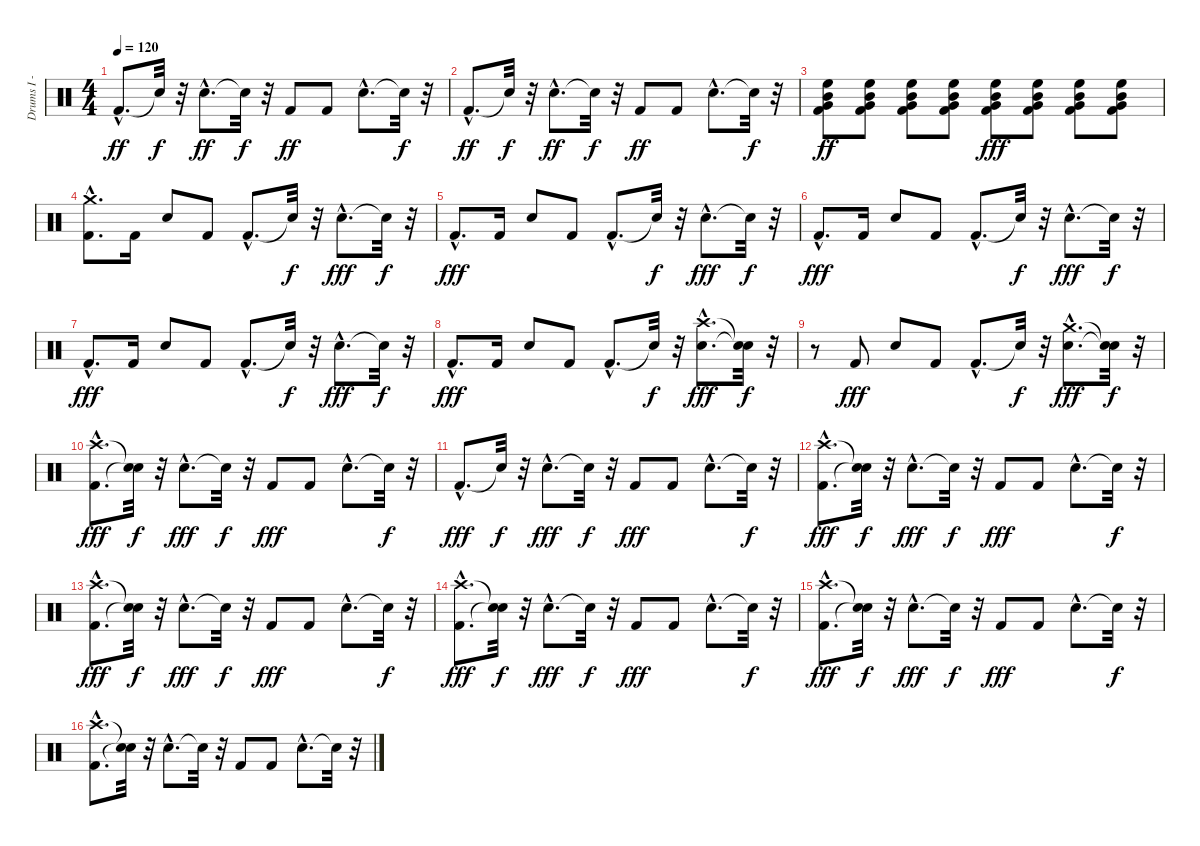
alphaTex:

\track ("Drums I - Bobby Schayer" "Drums I - ") {instrument percussion}
\staff {score}
\articulation defaults
\ts (4 4)
\tempo 120
\clef neutral
\ks c "Kick (hit) 2"{hac}.8{d dy ff} "Snare (hit)"{t}.32{dy f}
r.32 "Snare (hit) 2"{hac}.8{d dy ff} "Snare (hit)"{t}.32{dy f} r.32 "Kick (hit) 2".8{dy ff} "Kick (hit) 2".8 "Snare (hit) 2"{hac}.8{d} "Snare (hit)"{t}.32{dy f} r.32 |
"Kick (hit) 2"{hac}.8{d dy ff} "Snare (hit)"{t}.32{dy f} r.32 "Snare (hit) 2"{hac}.8{d dy ff} "Snare (hit)"{t}.32{dy f} r.32 "Kick (hit) 2".8{dy ff} "Kick (hit) 2".8 "Snare (hit) 2"{hac}.8{d} "Snare (hit)"{t}.32{dy f} r.32 |
("Kick (hit) 2" "Very Low Tom (hit)" "Mid Tom (hit)" "High Floor Tom (hit)").8{dy ff} ("Kick (hit) 2" "Very Low Tom (hit)" "Mid Tom (hit)" "High Floor Tom (hit)").8 ("Kick (hit) 2" "Very Low Tom (hit)" "Mid Tom (hit)" "High Floor Tom (hit)").8 ("Kick (hit) 2" "Very Low Tom (hit)" "Mid Tom (hit)" "High Floor Tom (hit)").8 ("Kick (hit) 2" "Very Low Tom (hit)" "Mid Tom (hit)" "High Floor Tom (hit)").8{dy fff} ("Kick (hit) 2" "Very Low Tom (hit)" "Mid Tom (hit)" "High Floor Tom (hit)").8 ("Kick (hit) 2" "Very Low Tom (hit)" "Mid Tom (hit)" "High Floor Tom (hit)").8 ("Kick (hit) 2" "Very Low Tom (hit)" "Mid Tom (hit)" "High Floor Tom (hit)").8 |
("Kick (hit) 2"{hac} "Crash medium (hit)"{hac}).8{d} "Kick (hit) 2".16 "Snare (hit) 2".8 "Kick (hit) 2".8 "Kick (hit) 2"{hac}.8{d} "Snare (hit)"{t}.32{dy f} r.32 "Snare (hit) 2"{hac}.8{d dy fff} "Snare (hit)"{t}.32{dy f} r.32 |
"Kick (hit) 2"{hac}.8{d dy fff} "Kick (hit) 2".16 "Snare (hit) 2".8 "Kick (hit) 2".8 "Kick (hit) 2"{hac}.8{d} "Snare (hit)"{t}.32{dy f} r.32 "Snare (hit) 2"{hac}.8{d dy fff} "Snare (hit)"{t}.32{dy f} r.32 |
"Kick (hit) 2"{hac}.8{d dy fff} "Kick (hit) 2".16 "Snare (hit) 2".8 "Kick (hit) 2".8 "Kick (hit) 2"{hac}.8{d} "Snare (hit)"{t}.32{dy f} r.32 "Snare (hit) 2"{hac}.8{d dy fff} "Snare (hit)"{t}.32{dy f} r.32 |
"Kick (hit) 2"{hac}.8{d dy fff} "Kick (hit) 2".16 "Snare (hit) 2".8 "Kick (hit) 2".8 "Kick (hit) 2"{hac}.8{d} "Snare (hit)"{t}.32{dy f} r.32 "Snare (hit) 2"{hac}.8{d dy fff} "Snare (hit)"{t}.32{dy f} r.32 |
"Kick (hit) 2"{hac}.8{d dy fff} "Kick (hit) 2".16 "Snare (hit) 2".8 "Kick (hit) 2".8 "Kick (hit) 2"{hac}.8{d} "Snare (hit)"{t}.32{dy f} r.32 ("Snare (hit) 2"{hac} "Crash high (hit)"{hac}).8{d dy fff} ("Snare (hit)"{t} "Snare (hit)"{t}).32{dy f} r.32 |
r.8 "Kick (hit) 2".8{dy fff} "Snare (hit) 2".8 "Kick (hit) 2".8 "Kick (hit) 2"{hac}.8{d} "Snare (hit)"{t}.32{dy f} r.32 ("Snare (hit) 2"{hac} "Crash medium (hit)"{hac}).8{d dy fff} ("Snare (hit)"{t} "Snare (hit)"{t}).32{dy f} r.32 |
("Kick (hit) 2"{hac} "Crash high (hit)"{hac}).8{d dy fff} ("Snare (hit)"{t} "Snare (hit)"{t}).32{dy f} r.32 "Snare (hit) 2"{hac}.8{d dy fff} "Snare (hit)"{t}.32{dy f} r.32 "Kick (hit) 2".8{dy fff} "Kick (hit) 2".8 "Snare (hit) 2"{hac}.8{d} "Snare (hit)"{t}.32{dy f} r.32 |
"Kick (hit) 2"{hac}.8{d dy fff} "Snare (hit)"{t}.32{dy f} r.32 "Snare (hit) 2"{hac}.8{d dy fff} "Snare (hit)"{t}.32{dy f} r.32 "Kick (hit) 2".8{dy fff} "Kick (hit) 2".8 "Snare (hit) 2"{hac}.8{d} "Snare (hit)"{t}.32{dy f} r.32 |
("Kick (hit) 2"{hac} "Crash high (hit)"{hac}).8{d dy fff} ("Snare (hit)"{t} "Snare (hit)"{t}).32{dy f} r.32 "Snare (hit) 2"{hac}.8{d dy fff} "Snare (hit)"{t}.32{dy f} r.32 "Kick (hit) 2".8{dy fff} "Kick (hit) 2".8 "Snare (hit) 2"{hac}.8{d} "Snare (hit)"{t}.32{dy f} r.32 |
("Kick (hit) 2"{hac} "Crash high (hit)"{hac}).8{d dy fff} ("Snare (hit)"{t} "Snare (hit)"{t}).32{dy f} r.32 "Snare (hit) 2"{hac}.8{d dy fff} "Snare (hit)"{t}.32{dy f} r.32 "Kick (hit) 2".8{dy fff} "Kick (hit) 2".8 "Snare (hit) 2"{hac}.8{d} "Snare (hit)"{t}.32{dy f} r.32 |
("Kick (hit) 2"{hac} "Crash high (hit)"{hac}).8{d dy fff} ("Snare (hit)"{t} "Snare (hit)"{t}).32{dy f} r.32 "Snare (hit) 2"{hac}.8{d dy fff} "Snare (hit)"{t}.32{dy f} r.32 "Kick (hit) 2".8{dy fff} "Kick (hit) 2".8 "Snare (hit) 2"{hac}.8{d} "Snare (hit)"{t}.32{dy f} r.32 |
("Kick (hit) 2"{hac} "Crash high (hit)"{hac}).8{d dy fff} ("Snare (hit)"{t} "Snare (hit)"{t}).32{dy f} r.32 "Snare (hit) 2"{hac}.8{d dy fff} "Snare (hit)"{t}.32{dy f} r.32 "Kick (hit) 2".8{dy fff} "Kick (hit) 2".8 "Snare (hit) 2"{hac}.8{d} "Snare (hit)"{t}.32{dy f} r.32 |
("Kick (hit) 2"{hac} "Crash high (hit)"{hac}).8{d} ("Snare (hit)"{t} "Snare (hit)"{t}).32 r.32 "Snare (hit) 2"{hac}.8{d} "Snare (hit)"{t}.32 r.32 "Kick (hit) 2".8 "Kick (hit) 2".8 "Snare (hit) 2"{hac}.8{d} "Snare (hit)"{t}.32 r.32
